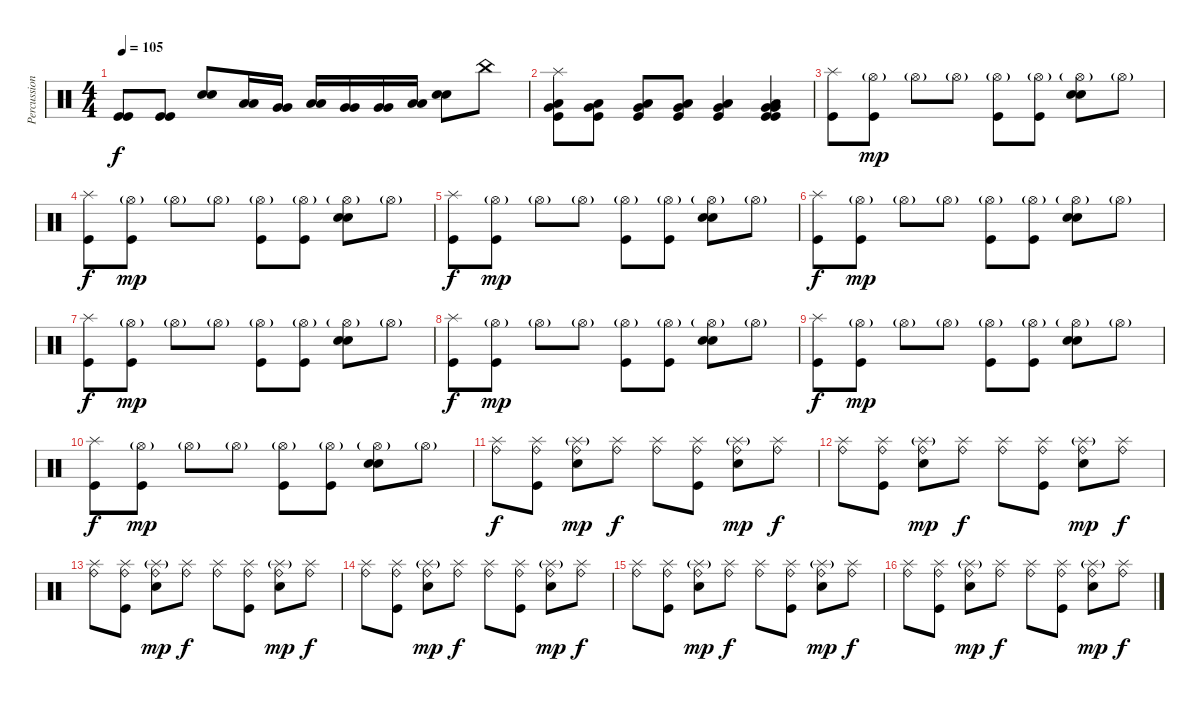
\track ("Percussion" "Percussion") {instrument percussion}
\staff {score}
\articulation defaults
\ts (4 4)
\tempo 105
\clef neutral
\ks c
("Kick (hit)" "Kick (hit)").8{dy f} ("Kick (hit)" "Kick (hit)").8 ("Snare (hit) 2" "Snare (hit) 2").8 ("Low Tom (hit)" "Low Tom (hit)").16 ("Very Low Tom (hit)" "Very Low Tom (hit)").16 ("Low Floor Tom (hit)" "Low Floor Tom (hit)").16 ("Very Low Tom (hit)" "Very Low Tom (hit)").16 ("Very Low Tom (hit)" "Very Low Tom (hit)").16 ("Low Floor Tom (hit)" "Low Floor Tom (hit)").16 ("Snare (hit) 2" "Snare (hit) 2").8 "China (hit)".8 |
("Splash (hit)" "Low Floor Tom (hit)" "Kick (hit)" "Very Low Tom (hit)").8 ("Low Floor Tom (hit)" "Kick (hit)" "Very Low Tom (hit)").8 ("Low Floor Tom (hit)" "Kick (hit)" "Very Low Tom (hit)").8 ("Low Floor Tom (hit)" "Kick (hit)" "Very Low Tom (hit)").8 ("Low Floor Tom (hit)" "Kick (hit)" "Very Low Tom (hit)").4 ("Low Floor Tom (hit)" "Kick (hit)" "Very Low Tom (hit)" "Kick (hit)" "Very Low Tom (hit)").4 |
("Splash (hit)" "Kick (hit)").8 ("Hi-Hat (open)"{g} "Kick (hit)").8{dy mp} "Hi-Hat (open)"{g}.8 "Hi-Hat (open)"{g}.8 ("Hi-Hat (open)"{g} "Kick (hit)").8 ("Hi-Hat (open)"{g} "Kick (hit)").8 ("Snare (hit) 2" "Hi-Hat (open)"{g} "Snare (hit) 2").8 "Hi-Hat (open)"{g}.8 |
("Splash (hit)" "Kick (hit)").8{dy f} ("Hi-Hat (open)"{g} "Kick (hit)").8{dy mp} "Hi-Hat (open)"{g}.8 "Hi-Hat (open)"{g}.8 ("Hi-Hat (open)"{g} "Kick (hit)").8 ("Hi-Hat (open)"{g} "Kick (hit)").8 ("Snare (hit) 2" "Hi-Hat (open)"{g} "Snare (hit) 2").8 "Hi-Hat (open)"{g}.8 |
("Splash (hit)" "Kick (hit)").8{dy f} ("Hi-Hat (open)"{g} "Kick (hit)").8{dy mp} "Hi-Hat (open)"{g}.8 "Hi-Hat (open)"{g}.8 ("Hi-Hat (open)"{g} "Kick (hit)").8 ("Hi-Hat (open)"{g} "Kick (hit)").8 ("Snare (hit) 2" "Hi-Hat (open)"{g} "Snare (hit) 2").8 "Hi-Hat (open)"{g}.8 |
("Splash (hit)" "Kick (hit)").8{dy f} ("Hi-Hat (open)"{g} "Kick (hit)").8{dy mp} "Hi-Hat (open)"{g}.8 "Hi-Hat (open)"{g}.8 ("Hi-Hat (open)"{g} "Kick (hit)").8 ("Hi-Hat (open)"{g} "Kick (hit)").8 ("Snare (hit) 2" "Hi-Hat (open)"{g} "Snare (hit) 2").8 "Hi-Hat (open)"{g}.8 |
("Splash (hit)" "Kick (hit)").8{dy f} ("Hi-Hat (open)"{g} "Kick (hit)").8{dy mp} "Hi-Hat (open)"{g}.8 "Hi-Hat (open)"{g}.8 ("Hi-Hat (open)"{g} "Kick (hit)").8 ("Hi-Hat (open)"{g} "Kick (hit)").8 ("Snare (hit) 2" "Hi-Hat (open)"{g} "Snare (hit) 2").8 "Hi-Hat (open)"{g}.8 |
("Splash (hit)" "Kick (hit)").8{dy f} ("Hi-Hat (open)"{g} "Kick (hit)").8{dy mp} "Hi-Hat (open)"{g}.8 "Hi-Hat (open)"{g}.8 ("Hi-Hat (open)"{g} "Kick (hit)").8 ("Hi-Hat (open)"{g} "Kick (hit)").8 ("Snare (hit) 2" "Hi-Hat (open)"{g} "Snare (hit) 2").8 "Hi-Hat (open)"{g}.8 |
("Splash (hit)" "Kick (hit)").8{dy f} ("Hi-Hat (open)"{g} "Kick (hit)").8{dy mp} "Hi-Hat (open)"{g}.8 "Hi-Hat (open)"{g}.8 ("Hi-Hat (open)"{g} "Kick (hit)").8 ("Hi-Hat (open)"{g} "Kick (hit)").8 ("Snare (hit) 2" "Hi-Hat (open)"{g} "Snare (hit) 2").8 "Hi-Hat (open)"{g}.8 |
("Splash (hit)" "Kick (hit)").8{dy f} ("Hi-Hat (open)"{g} "Kick (hit)").8{dy mp} "Hi-Hat (open)"{g}.8 "Hi-Hat (open)"{g}.8 ("Hi-Hat (open)"{g} "Kick (hit)").8 ("Hi-Hat (open)"{g} "Kick (hit)").8 ("Snare (hit) 2" "Hi-Hat (open)"{g} "Snare (hit) 2").8 "Hi-Hat (open)"{g}.8 |
("Ride (bell)" "Splash (hit)").8{dy f} ("Kick (hit)" "Ride (bell)" "Splash (hit)").8 ("Snare (hit) 2" "Ride (bell)" "Splash (hit)"{g}).8{dy mp} ("Ride (bell)" "Splash (hit)").8{dy f} ("Ride (bell)" "Splash (hit)").8 ("Kick (hit)" "Ride (bell)" "Splash (hit)").8 ("Snare (hit) 2" "Ride (bell)" "Splash (hit)"{g}).8{dy mp} ("Ride (bell)" "Splash (hit)").8{dy f} |
("Ride (bell)" "Splash (hit)").8 ("Kick (hit)" "Ride (bell)" "Splash (hit)").8 ("Snare (hit) 2" "Ride (bell)" "Splash (hit)"{g}).8{dy mp} ("Ride (bell)" "Splash (hit)").8{dy f} ("Ride (bell)" "Splash (hit)").8 ("Kick (hit)" "Ride (bell)" "Splash (hit)").8 ("Snare (hit) 2" "Ride (bell)" "Splash (hit)"{g}).8{dy mp} ("Ride (bell)" "Splash (hit)").8{dy f} |
("Ride (bell)" "Splash (hit)").8 ("Kick (hit)" "Ride (bell)" "Splash (hit)").8 ("Snare (hit) 2" "Ride (bell)" "Splash (hit)"{g}).8{dy mp} ("Ride (bell)" "Splash (hit)").8{dy f} ("Ride (bell)" "Splash (hit)").8 ("Kick (hit)" "Ride (bell)" "Splash (hit)").8 ("Snare (hit) 2" "Ride (bell)" "Splash (hit)"{g}).8{dy mp} ("Ride (bell)" "Splash (hit)").8{dy f} |
("Ride (bell)" "Splash (hit)").8 ("Kick (hit)" "Ride (bell)" "Splash (hit)").8 ("Snare (hit) 2" "Ride (bell)" "Splash (hit)"{g}).8{dy mp} ("Ride (bell)" "Splash (hit)").8{dy f} ("Ride (bell)" "Splash (hit)").8 ("Kick (hit)" "Ride (bell)" "Splash (hit)").8 ("Snare (hit) 2" "Ride (bell)" "Splash (hit)"{g}).8{dy mp} ("Ride (bell)" "Splash (hit)").8{dy f} |
("Ride (bell)" "Splash (hit)").8 ("Kick (hit)" "Ride (bell)" "Splash (hit)").8 ("Snare (hit) 2" "Ride (bell)" "Splash (hit)"{g}).8{dy mp} ("Ride (bell)" "Splash (hit)").8{dy f} ("Ride (bell)" "Splash (hit)").8 ("Kick (hit)" "Ride (bell)" "Splash (hit)").8 ("Snare (hit) 2" "Ride (bell)" "Splash (hit)"{g}).8{dy mp} ("Ride (bell)" "Splash (hit)").8{dy f} |
("Ride (bell)" "Splash (hit)").8 ("Kick (hit)" "Ride (bell)" "Splash (hit)").8 ("Snare (hit) 2" "Ride (bell)" "Splash (hit)"{g}).8{dy mp} ("Ride (bell)" "Splash (hit)").8{dy f} ("Ride (bell)" "Splash (hit)").8 ("Kick (hit)" "Ride (bell)" "Splash (hit)").8 ("Snare (hit) 2" "Ride (bell)" "Splash (hit)"{g}).8{dy mp} ("Ride (bell)" "Splash (hit)").8{dy f}
